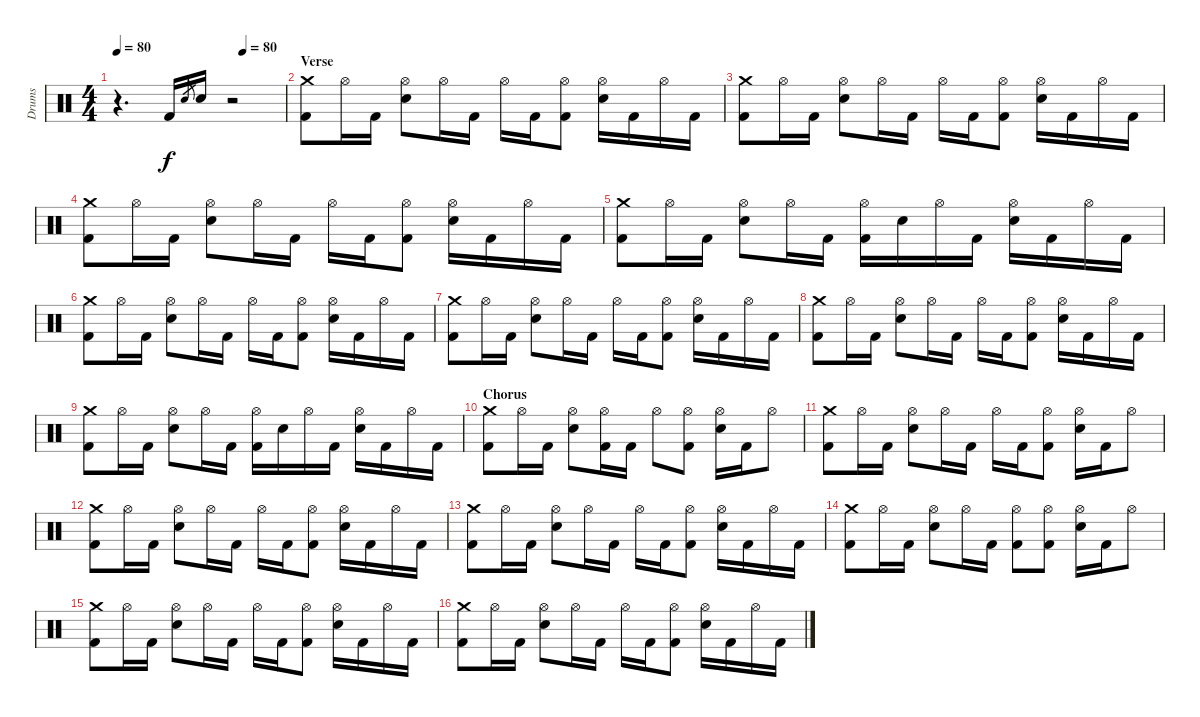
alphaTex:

\track ("Drums" "Drums") {instrument percussion}
\staff {score}
\articulation defaults
\ts (4 4)
\tempo 80
\tempo (80 0.75)
\clef neutral
\ks c
r.4{d dy f} "Kick (hit) 2".16 "Electric Snare (hit)".8{gr} "Electric Snare (hit)".16 r.2 |
\section ("" "Verse")
("Crash medium (hit)" "Kick (hit) 2").8 "Hi-Hat (open)".16 "Kick (hit) 2".16 ("Hi-Hat (open)" "Electric Snare (hit)").8 "Hi-Hat (open)".16 "Kick (hit) 2".16 "Hi-Hat (open)".16 "Kick (hit) 2".16 ("Hi-Hat (open)" "Kick (hit) 2").8 ("Hi-Hat (open)" "Electric Snare (hit)").16 "Kick (hit) 2".16 "Hi-Hat (open)".16 "Kick (hit) 2".16 |
("Crash medium (hit)" "Kick (hit) 2").8 "Hi-Hat (open)".16 "Kick (hit) 2".16 ("Hi-Hat (open)" "Electric Snare (hit)").8 "Hi-Hat (open)".16 "Kick (hit) 2".16 "Hi-Hat (open)".16 "Kick (hit) 2".16 ("Hi-Hat (open)" "Kick (hit) 2").8 ("Hi-Hat (open)" "Electric Snare (hit)").16 "Kick (hit) 2".16 "Hi-Hat (open)".16 "Kick (hit) 2".16 |
("Crash medium (hit)" "Kick (hit) 2").8 "Hi-Hat (open)".16 "Kick (hit) 2".16 ("Hi-Hat (open)" "Electric Snare (hit)").8 "Hi-Hat (open)".16 "Kick (hit) 2".16 "Hi-Hat (open)".16 "Kick (hit) 2".16 ("Hi-Hat (open)" "Kick (hit) 2").8 ("Hi-Hat (open)" "Electric Snare (hit)").16 "Kick (hit) 2".16 "Hi-Hat (open)".16 "Kick (hit) 2".16 |
("Crash medium (hit)" "Kick (hit) 2").8 "Hi-Hat (open)".16 "Kick (hit) 2".16 ("Hi-Hat (open)" "Electric Snare (hit)").8 "Hi-Hat (open)".16 "Kick (hit) 2".16 ("Hi-Hat (open)" "Kick (hit) 2").16 "Electric Snare (hit)".16 "Hi-Hat (open)".16 "Kick (hit) 2".16 ("Hi-Hat (open)" "Electric Snare (hit)").16 "Kick (hit) 2".16 "Hi-Hat (open)".16 "Kick (hit) 2".16 |
("Crash medium (hit)" "Kick (hit) 2").8 "Hi-Hat (open)".16 "Kick (hit) 2".16 ("Hi-Hat (open)" "Electric Snare (hit)").8 "Hi-Hat (open)".16 "Kick (hit) 2".16 "Hi-Hat (open)".16 "Kick (hit) 2".16 ("Hi-Hat (open)" "Kick (hit) 2").8 ("Hi-Hat (open)" "Electric Snare (hit)").16 "Kick (hit) 2".16 "Hi-Hat (open)".16 "Kick (hit) 2".16 |
("Crash medium (hit)" "Kick (hit) 2").8 "Hi-Hat (open)".16 "Kick (hit) 2".16 ("Hi-Hat (open)" "Electric Snare (hit)").8 "Hi-Hat (open)".16 "Kick (hit) 2".16 "Hi-Hat (open)".16 "Kick (hit) 2".16 ("Hi-Hat (open)" "Kick (hit) 2").8 ("Hi-Hat (open)" "Electric Snare (hit)").16 "Kick (hit) 2".16 "Hi-Hat (open)".16 "Kick (hit) 2".16 |
("Crash medium (hit)" "Kick (hit) 2").8 "Hi-Hat (open)".16 "Kick (hit) 2".16 ("Hi-Hat (open)" "Electric Snare (hit)").8 "Hi-Hat (open)".16 "Kick (hit) 2".16 "Hi-Hat (open)".16 "Kick (hit) 2".16 ("Hi-Hat (open)" "Kick (hit) 2").8 ("Hi-Hat (open)" "Electric Snare (hit)").16 "Kick (hit) 2".16 "Hi-Hat (open)".16 "Kick (hit) 2".16 |
("Crash medium (hit)" "Kick (hit) 2").8 "Hi-Hat (open)".16 "Kick (hit) 2".16 ("Hi-Hat (open)" "Electric Snare (hit)").8 "Hi-Hat (open)".16 "Kick (hit) 2".16 ("Hi-Hat (open)" "Kick (hit) 2").16 "Electric Snare (hit)".16 "Hi-Hat (open)".16 "Kick (hit) 2".16 ("Hi-Hat (open)" "Electric Snare (hit)").16 "Kick (hit) 2".16 "Hi-Hat (open)".16 "Kick (hit) 2".16 |
\section ("" "Chorus")
("Crash medium (hit)" "Kick (hit) 2").8 "Hi-Hat (open)".16 "Kick (hit) 2".16 ("Hi-Hat (open)" "Electric Snare (hit)").8 ("Hi-Hat (open)" "Kick (hit) 2").16 "Kick (hit) 2".16 "Hi-Hat (open)".8 ("Hi-Hat (open)" "Kick (hit) 2").8 ("Hi-Hat (open)" "Electric Snare (hit)").16 "Kick (hit) 2".16 "Hi-Hat (open)".8 |
("Crash medium (hit)" "Kick (hit) 2").8 "Hi-Hat (open)".16 "Kick (hit) 2".16 ("Hi-Hat (open)" "Electric Snare (hit)").8 "Hi-Hat (open)".16 "Kick (hit) 2".16 "Hi-Hat (open)".16 "Kick (hit) 2".16 ("Hi-Hat (open)" "Kick (hit) 2").8 ("Hi-Hat (open)" "Electric Snare (hit)").16 "Kick (hit) 2".16 "Hi-Hat (open)".8 |
("Crash medium (hit)" "Kick (hit) 2").8 "Hi-Hat (open)".16 "Kick (hit) 2".16 ("Hi-Hat (open)" "Electric Snare (hit)").8 "Hi-Hat (open)".16 "Kick (hit) 2".16 "Hi-Hat (open)".16 "Kick (hit) 2".16 ("Hi-Hat (open)" "Kick (hit) 2").8 ("Hi-Hat (open)" "Electric Snare (hit)").16 "Kick (hit) 2".16 "Hi-Hat (open)".16 "Kick (hit) 2".16 |
("Crash medium (hit)" "Kick (hit) 2").8 "Hi-Hat (open)".16 "Kick (hit) 2".16 ("Hi-Hat (open)" "Electric Snare (hit)").8 "Hi-Hat (open)".16 "Kick (hit) 2".16 "Hi-Hat (open)".16 "Kick (hit) 2".16 ("Hi-Hat (open)" "Kick (hit) 2").8 ("Hi-Hat (open)" "Electric Snare (hit)").16 "Kick (hit) 2".16 "Hi-Hat (open)".16 "Kick (hit) 2".16 |
("Crash medium (hit)" "Kick (hit) 2").8 "Hi-Hat (open)".16 "Kick (hit) 2".16 ("Hi-Hat (open)" "Electric Snare (hit)").8 "Hi-Hat (open)".16 "Kick (hit) 2".16 ("Hi-Hat (open)" "Kick (hit) 2").8 ("Hi-Hat (open)" "Kick (hit) 2").8 ("Hi-Hat (open)" "Electric Snare (hit)").16 "Kick (hit) 2".16 "Hi-Hat (open)".8 |
("Crash medium (hit)" "Kick (hit) 2").8 "Hi-Hat (open)".16 "Kick (hit) 2".16 ("Hi-Hat (open)" "Electric Snare (hit)").8 "Hi-Hat (open)".16 "Kick (hit) 2".16 "Hi-Hat (open)".16 "Kick (hit) 2".16 ("Hi-Hat (open)" "Kick (hit) 2").8 ("Hi-Hat (open)" "Electric Snare (hit)").16 "Kick (hit) 2".16 "Hi-Hat (open)".16 "Kick (hit) 2".16 |
("Crash medium (hit)" "Kick (hit) 2").8 "Hi-Hat (open)".16 "Kick (hit) 2".16 ("Hi-Hat (open)" "Electric Snare (hit)").8 "Hi-Hat (open)".16 "Kick (hit) 2".16 "Hi-Hat (open)".16 "Kick (hit) 2".16 ("Hi-Hat (open)" "Kick (hit) 2").8 ("Hi-Hat (open)" "Electric Snare (hit)").16 "Kick (hit) 2".16 "Hi-Hat (open)".16 "Kick (hit) 2".16
